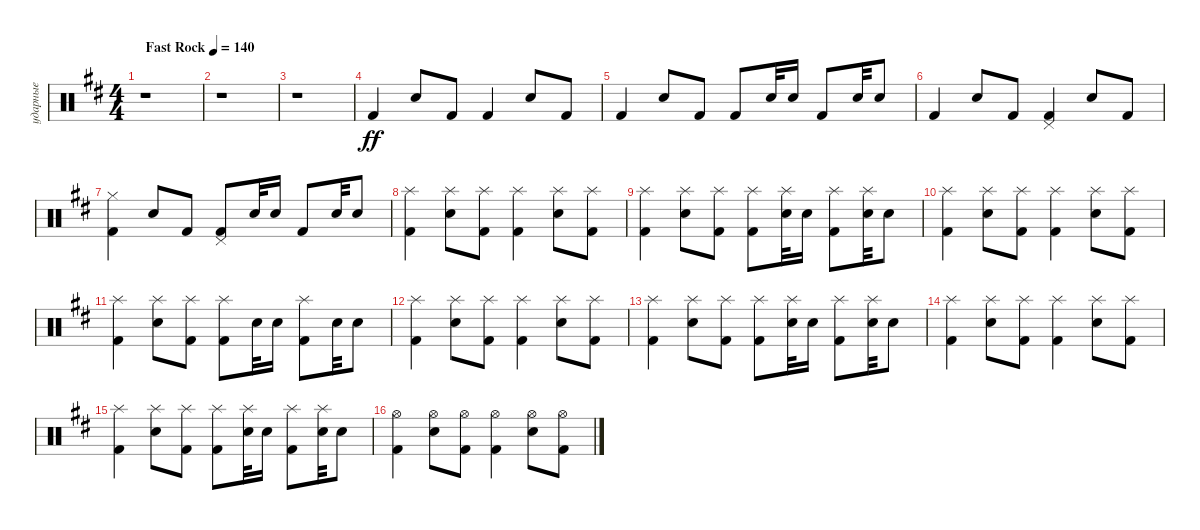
\track ("ударные" "ударные") {instrument percussion}
\staff {score}
\articulation defaults
\ts (4 4)
\tempo (140 "Fast Rock")
\clef neutral
\ks bminor
r.1{dy ff} |
r.1 |
r.1 |
"Kick (hit) 2".4 "Snare (hit) 2".8 "Kick (hit) 2".8 "Kick (hit) 2".4 "Snare (hit) 2".8 "Kick (hit) 2".8 |
"Kick (hit) 2".4 "Snare (hit) 2".8 "Kick (hit) 2".8 "Kick (hit) 2".8 "Snare (hit) 2".32 "Snare (hit) 2".16{beam split} "Kick (hit) 2".8{beam merge} "Snare (hit) 2".32 "Snare (hit) 2".8 |
"Kick (hit) 2".4 "Snare (hit) 2".8 "Kick (hit) 2".8 ("Kick (hit) 2" "Pedal Hi-Hat (hit)").4 "Snare (hit) 2".8 "Kick (hit) 2".8 |
("Kick (hit) 2" "Hi-Hat (closed)").4 "Snare (hit) 2".8 "Kick (hit) 2".8 ("Kick (hit) 2" "Pedal Hi-Hat (hit)").8 "Snare (hit) 2".32 "Snare (hit) 2".16{beam split} "Kick (hit) 2".8{beam merge} "Snare (hit) 2".32 "Snare (hit) 2".8 |
("Kick (hit) 2" "Splash (hit)").4 ("Snare (hit) 2" "Splash (hit)").8 ("Kick (hit) 2" "Splash (hit)").8 ("Kick (hit) 2" "Splash (hit)").4 ("Snare (hit) 2" "Splash (hit)").8 ("Kick (hit) 2" "Splash (hit)").8 |
("Kick (hit) 2" "Splash (hit)").4 ("Snare (hit) 2" "Splash (hit)").8 ("Kick (hit) 2" "Splash (hit)").8 ("Kick (hit) 2" "Splash (hit)").8 ("Snare (hit) 2" "Splash (hit)").32 "Snare (hit) 2".16{beam split} ("Kick (hit) 2" "Splash (hit)").8{beam merge} ("Snare (hit) 2" "Splash (hit)").32 "Snare (hit) 2".8 |
("Kick (hit) 2" "Splash (hit)").4 ("Snare (hit) 2" "Splash (hit)").8 ("Kick (hit) 2" "Splash (hit)").8 ("Kick (hit) 2" "Splash (hit)").4 ("Snare (hit) 2" "Splash (hit)").8 ("Kick (hit) 2" "Splash (hit)").8 |
("Kick (hit) 2" "Splash (hit)").4 ("Snare (hit) 2" "Splash (hit)").8 ("Kick (hit) 2" "Splash (hit)").8 ("Kick (hit) 2" "Splash (hit)").8 "Snare (hit) 2".32 "Snare (hit) 2".16{beam split} ("Kick (hit) 2" "Splash (hit)").8{beam merge} "Snare (hit) 2".32 "Snare (hit) 2".8 |
("Kick (hit) 2" "Splash (hit)").4 ("Snare (hit) 2" "Splash (hit)").8 ("Kick (hit) 2" "Splash (hit)").8 ("Kick (hit) 2" "Splash (hit)").4 ("Snare (hit) 2" "Splash (hit)").8 ("Kick (hit) 2" "Splash (hit)").8 |
("Kick (hit) 2" "Splash (hit)").4 ("Snare (hit) 2" "Splash (hit)").8 ("Kick (hit) 2" "Splash (hit)").8 ("Kick (hit) 2" "Splash (hit)").8 ("Snare (hit) 2" "Splash (hit)").32 "Snare (hit) 2".16{beam split} ("Kick (hit) 2" "Splash (hit)").8{beam merge} ("Snare (hit) 2" "Splash (hit)").32 "Snare (hit) 2".8 |
("Kick (hit) 2" "Splash (hit)").4 ("Snare (hit) 2" "Splash (hit)").8 ("Kick (hit) 2" "Splash (hit)").8 ("Kick (hit) 2" "Splash (hit)").4 ("Snare (hit) 2" "Splash (hit)").8 ("Kick (hit) 2" "Splash (hit)").8 |
("Kick (hit) 2" "Splash (hit)").4 ("Snare (hit) 2" "Splash (hit)").8 ("Kick (hit) 2" "Splash (hit)").8 ("Kick (hit) 2" "Splash (hit)").8 ("Snare (hit) 2" "Splash (hit)").32 "Snare (hit) 2".16{beam split} ("Kick (hit) 2" "Splash (hit)").8{beam merge} ("Snare (hit) 2" "Splash (hit)").32 "Snare (hit) 2".8 |
("Kick (hit) 2" "Hi-Hat (open)").4 ("Snare (hit) 2" "Hi-Hat (open)").8 ("Kick (hit) 2" "Hi-Hat (open)").8 ("Kick (hit) 2" "Hi-Hat (open)").4 ("Snare (hit) 2" "Hi-Hat (open)").8 ("Kick (hit) 2" "Hi-Hat (open)").8
